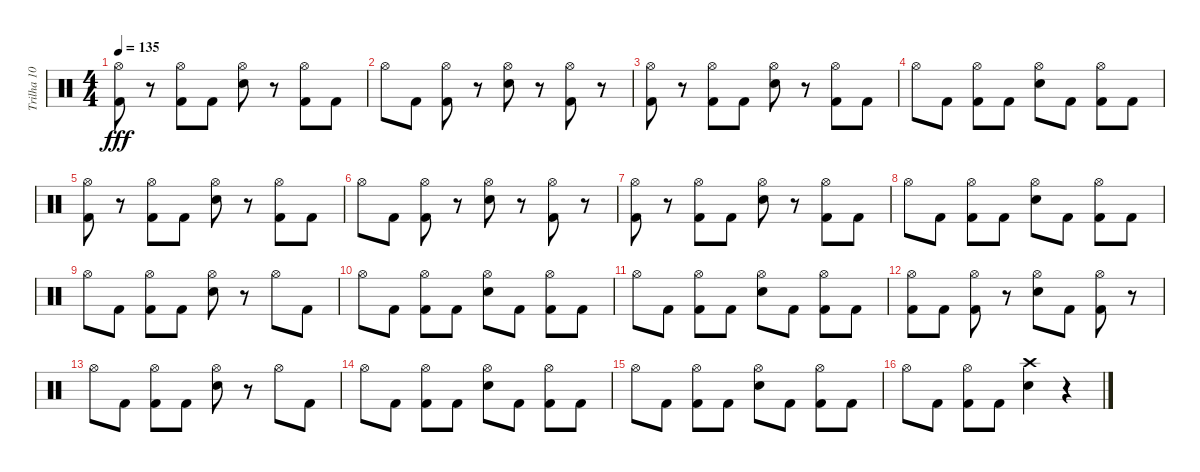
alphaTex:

\track ("Trilha 10" "Trilha 10") {instrument percussion}
\staff {score}
\articulation defaults
\ts (4 4)
\tempo 135
\clef neutral
\ks c
("Hi-Hat (open)" "Kick (hit) 2").8{dy fff} r.8 ("Hi-Hat (open)" "Kick (hit) 2").8 "Kick (hit) 2".8 ("Hi-Hat (open)" "Electric Snare (hit)").8 r.8 ("Hi-Hat (open)" "Kick (hit) 2").8 "Kick (hit) 2".8 |
"Hi-Hat (open)".8 "Kick (hit) 2".8 ("Hi-Hat (open)" "Kick (hit) 2").8 r.8 ("Hi-Hat (open)" "Electric Snare (hit)").8 r.8 ("Hi-Hat (open)" "Kick (hit) 2").8 r.8 |
("Hi-Hat (open)" "Kick (hit) 2").8 r.8 ("Hi-Hat (open)" "Kick (hit) 2").8 "Kick (hit) 2".8 ("Hi-Hat (open)" "Electric Snare (hit)").8 r.8 ("Hi-Hat (open)" "Kick (hit) 2").8 "Kick (hit) 2".8 |
"Hi-Hat (open)".8 "Kick (hit) 2".8 ("Hi-Hat (open)" "Kick (hit) 2").8 "Kick (hit) 2".8 ("Hi-Hat (open)" "Electric Snare (hit)").8 "Kick (hit) 2".8 ("Hi-Hat (open)" "Kick (hit) 2").8 "Kick (hit) 2".8 |
("Hi-Hat (open)" "Kick (hit) 2").8 r.8 ("Hi-Hat (open)" "Kick (hit) 2").8 "Kick (hit) 2".8 ("Hi-Hat (open)" "Electric Snare (hit)").8 r.8 ("Hi-Hat (open)" "Kick (hit) 2").8 "Kick (hit) 2".8 |
"Hi-Hat (open)".8 "Kick (hit) 2".8 ("Hi-Hat (open)" "Kick (hit) 2").8 r.8 ("Hi-Hat (open)" "Electric Snare (hit)").8 r.8 ("Hi-Hat (open)" "Kick (hit) 2").8 r.8 |
("Hi-Hat (open)" "Kick (hit) 2").8 r.8 ("Hi-Hat (open)" "Kick (hit) 2").8 "Kick (hit) 2".8 ("Electric Snare (hit)" "Hi-Hat (open)").8 r.8 ("Kick (hit) 2" "Hi-Hat (open)").8 "Kick (hit) 2".8 |
"Hi-Hat (open)".8 "Kick (hit) 2".8 ("Hi-Hat (open)" "Kick (hit) 2").8 "Kick (hit) 2".8 ("Hi-Hat (open)" "Electric Snare (hit)").8 "Kick (hit) 2".8 ("Hi-Hat (open)" "Kick (hit) 2").8 "Kick (hit) 2".8 |
"Hi-Hat (open)".8 "Kick (hit) 2".8 ("Hi-Hat (open)" "Kick (hit) 2").8 "Kick (hit) 2".8 ("Hi-Hat (open)" "Electric Snare (hit)").8 r.8 "Hi-Hat (open)".8 "Kick (hit) 2".8 |
"Hi-Hat (open)".8 "Kick (hit) 2".8 ("Kick (hit) 2" "Hi-Hat (open)").8 "Kick (hit) 2".8 ("Electric Snare (hit)" "Hi-Hat (open)").8 "Kick (hit) 2".8 ("Kick (hit) 2" "Hi-Hat (open)").8 "Kick (hit) 2".8 |
"Hi-Hat (open)".8 "Kick (hit) 2".8 ("Hi-Hat (open)" "Kick (hit) 2").8 "Kick (hit) 2".8 ("Hi-Hat (open)" "Electric Snare (hit)").8 "Kick (hit) 2".8 ("Hi-Hat (open)" "Kick (hit) 2").8 "Kick (hit) 2".8 |
("Hi-Hat (open)" "Kick (hit) 2").8 "Kick (hit) 2".8 ("Hi-Hat (open)" "Kick (hit) 2").8 r.8 ("Hi-Hat (open)" "Electric Snare (hit)").8 "Kick (hit) 2".8 ("Hi-Hat (open)" "Kick (hit) 2").8 r.8 |
"Hi-Hat (open)".8 "Kick (hit) 2".8 ("Hi-Hat (open)" "Kick (hit) 2").8 "Kick (hit) 2".8 ("Hi-Hat (open)" "Electric Snare (hit)").8 r.8 "Hi-Hat (open)".8 "Kick (hit) 2".8 |
"Hi-Hat (open)".8 "Kick (hit) 2".8 ("Hi-Hat (open)" "Kick (hit) 2").8 "Kick (hit) 2".8 ("Hi-Hat (open)" "Electric Snare (hit)").8 "Kick (hit) 2".8 ("Hi-Hat (open)" "Kick (hit) 2").8 "Kick (hit) 2".8 |
"Hi-Hat (open)".8 "Kick (hit) 2".8 ("Hi-Hat (open)" "Kick (hit) 2").8 "Kick (hit) 2".8 ("Hi-Hat (open)" "Electric Snare (hit)").8 "Kick (hit) 2".8 ("Hi-Hat (open)" "Kick (hit) 2").8 "Kick (hit) 2".8 |
"Hi-Hat (open)".8 "Kick (hit) 2".8 ("Hi-Hat (open)" "Kick (hit) 2").8 "Kick (hit) 2".8 ("Crash high (hit)" "Electric Snare (hit)").4 r.4
